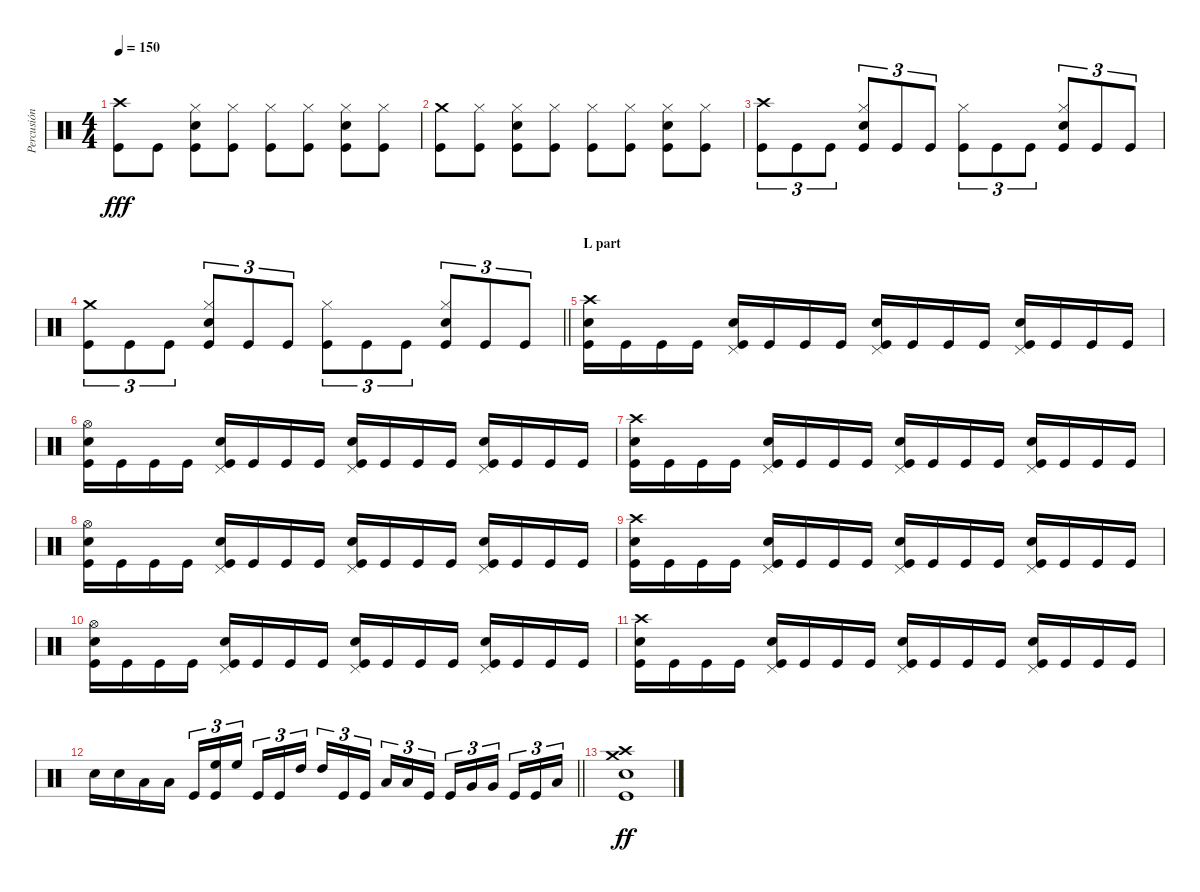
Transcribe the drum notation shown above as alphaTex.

\track ("Percusión" "Percusión") {instrument percussion}
\staff {score}
\articulation defaults
\ts (4 4)
\tempo 150
\clef neutral
\ks c
("Crash high (hit)" "Kick (hit)").8{dy fff} "Kick (hit)".8 ("Hi-Hat (closed)" "Electric Snare (hit)" "Kick (hit)").8 ("Hi-Hat (closed)" "Kick (hit)").8 ("Hi-Hat (closed)" "Kick (hit)").8 ("Hi-Hat (closed)" "Kick (hit)").8 ("Hi-Hat (closed)" "Electric Snare (hit)" "Kick (hit)").8 ("Hi-Hat (closed)" "Kick (hit)").8 |
("Crash medium (hit)" "Kick (hit)").8 ("Hi-Hat (closed)" "Kick (hit)").8 ("Hi-Hat (closed)" "Electric Snare (hit)" "Kick (hit)").8 ("Hi-Hat (closed)" "Kick (hit)").8 ("Hi-Hat (closed)" "Kick (hit)").8 ("Hi-Hat (closed)" "Kick (hit)").8 ("Hi-Hat (closed)" "Electric Snare (hit)" "Kick (hit)").8 ("Hi-Hat (closed)" "Kick (hit)").8 |
("Crash high (hit)" "Kick (hit)").8{tu (3 2)} "Kick (hit)".8{tu (3 2)} "Kick (hit)".8{tu (3 2)} ("Hi-Hat (closed)" "Electric Snare (hit)" "Kick (hit)").8{tu (3 2)} "Kick (hit)".8{tu (3 2)} "Kick (hit)".8{tu (3 2)} ("Hi-Hat (closed)" "Kick (hit)").8{tu (3 2)} "Kick (hit)".8{tu (3 2)} "Kick (hit)".8{tu (3 2)} ("Hi-Hat (closed)" "Electric Snare (hit)" "Kick (hit)").8{tu (3 2)} "Kick (hit)".8{tu (3 2)} "Kick (hit)".8{tu (3 2)} |
\barLineRight lightlight
("Crash medium (hit)" "Kick (hit)").8{tu (3 2)} "Kick (hit)".8{tu (3 2)} "Kick (hit)".8{tu (3 2)} ("Hi-Hat (closed)" "Electric Snare (hit)" "Kick (hit)").8{tu (3 2)} "Kick (hit)".8{tu (3 2)} "Kick (hit)".8{tu (3 2)} ("Hi-Hat (closed)" "Kick (hit)").8{tu (3 2)} "Kick (hit)".8{tu (3 2)} "Kick (hit)".8{tu (3 2)} ("Hi-Hat (closed)" "Electric Snare (hit)" "Kick (hit)").8{tu (3 2)} "Kick (hit)".8{tu (3 2)} "Kick (hit)".8{tu (3 2)} |
\section ("" "L part")
("Crash high (hit)" "Electric Snare (hit)" "Kick (hit)").16{volume 16} "Kick (hit)".16 "Kick (hit)".16 "Kick (hit)".16 ("Pedal Hi-Hat (hit)" "Electric Snare (hit)" "Kick (hit)").16 "Kick (hit)".16 "Kick (hit)".16 "Kick (hit)".16 ("Pedal Hi-Hat (hit)" "Electric Snare (hit)" "Kick (hit)").16 "Kick (hit)".16 "Kick (hit)".16 "Kick (hit)".16 ("Pedal Hi-Hat (hit)" "Electric Snare (hit)" "Kick (hit)").16 "Kick (hit)".16 "Kick (hit)".16 "Kick (hit)".16 |
("Hi-Hat (open)" "Electric Snare (hit)" "Kick (hit)").16 "Kick (hit)".16 "Kick (hit)".16 "Kick (hit)".16 ("Pedal Hi-Hat (hit)" "Electric Snare (hit)" "Kick (hit)").16 "Kick (hit)".16 "Kick (hit)".16 "Kick (hit)".16 ("Pedal Hi-Hat (hit)" "Electric Snare (hit)" "Kick (hit)").16 "Kick (hit)".16 "Kick (hit)".16 "Kick (hit)".16 ("Pedal Hi-Hat (hit)" "Electric Snare (hit)" "Kick (hit)").16 "Kick (hit)".16 "Kick (hit)".16 "Kick (hit)".16 |
("Crash high (hit)" "Electric Snare (hit)" "Kick (hit)").16 "Kick (hit)".16 "Kick (hit)".16 "Kick (hit)".16 ("Pedal Hi-Hat (hit)" "Electric Snare (hit)" "Kick (hit)").16 "Kick (hit)".16 "Kick (hit)".16 "Kick (hit)".16 ("Pedal Hi-Hat (hit)" "Electric Snare (hit)" "Kick (hit)").16 "Kick (hit)".16 "Kick (hit)".16 "Kick (hit)".16 ("Pedal Hi-Hat (hit)" "Electric Snare (hit)" "Kick (hit)").16 "Kick (hit)".16 "Kick (hit)".16 "Kick (hit)".16 |
("Hi-Hat (open)" "Electric Snare (hit)" "Kick (hit)").16 "Kick (hit)".16 "Kick (hit)".16 "Kick (hit)".16 ("Pedal Hi-Hat (hit)" "Electric Snare (hit)" "Kick (hit)").16 "Kick (hit)".16 "Kick (hit)".16 "Kick (hit)".16 ("Pedal Hi-Hat (hit)" "Electric Snare (hit)" "Kick (hit)").16 "Kick (hit)".16 "Kick (hit)".16 "Kick (hit)".16 ("Pedal Hi-Hat (hit)" "Electric Snare (hit)" "Kick (hit)").16 "Kick (hit)".16 "Kick (hit)".16 "Kick (hit)".16 |
("Crash high (hit)" "Electric Snare (hit)" "Kick (hit)").16 "Kick (hit)".16 "Kick (hit)".16 "Kick (hit)".16 ("Pedal Hi-Hat (hit)" "Electric Snare (hit)" "Kick (hit)").16 "Kick (hit)".16 "Kick (hit)".16 "Kick (hit)".16 ("Pedal Hi-Hat (hit)" "Electric Snare (hit)" "Kick (hit)").16 "Kick (hit)".16 "Kick (hit)".16 "Kick (hit)".16 ("Pedal Hi-Hat (hit)" "Electric Snare (hit)" "Kick (hit)").16 "Kick (hit)".16 "Kick (hit)".16 "Kick (hit)".16 |
("Hi-Hat (open)" "Electric Snare (hit)" "Kick (hit)").16 "Kick (hit)".16 "Kick (hit)".16 "Kick (hit)".16 ("Pedal Hi-Hat (hit)" "Electric Snare (hit)" "Kick (hit)").16 "Kick (hit)".16 "Kick (hit)".16 "Kick (hit)".16 ("Pedal Hi-Hat (hit)" "Electric Snare (hit)" "Kick (hit)").16 "Kick (hit)".16 "Kick (hit)".16 "Kick (hit)".16 ("Pedal Hi-Hat (hit)" "Electric Snare (hit)" "Kick (hit)").16 "Kick (hit)".16 "Kick (hit)".16 "Kick (hit)".16 |
("Crash high (hit)" "Electric Snare (hit)" "Kick (hit)").16 "Kick (hit)".16 "Kick (hit)".16 "Kick (hit)".16 ("Pedal Hi-Hat (hit)" "Electric Snare (hit)" "Kick (hit)").16 "Kick (hit)".16 "Kick (hit)".16 "Kick (hit)".16 ("Pedal Hi-Hat (hit)" "Electric Snare (hit)" "Kick (hit)").16 "Kick (hit)".16 "Kick (hit)".16 "Kick (hit)".16 ("Pedal Hi-Hat (hit)" "Electric Snare (hit)" "Kick (hit)").16 "Kick (hit)".16 "Kick (hit)".16 "Kick (hit)".16 |
\barLineRight lightlight "Electric Snare (hit)".16 "Electric Snare (hit)".16 "Low Tom (hit)".16 "Low Floor Tom (hit)".16 "Kick (hit)".16{tu (3 2)}
("High Floor Tom (hit)" "Kick (hit)").16{tu (3 2)} "High Floor Tom (hit)".16{tu (3 2) beam splitsecondary} "Kick (hit)".16{tu (3 2)} "Kick (hit)".16{tu (3 2)} "High Tom (hit)".16{tu (3 2)} "High Tom (hit)".16{tu (3 2)} "Kick (hit)".16{tu (3 2)} "Kick (hit)".16{tu (3 2) beam splitsecondary} "Low Tom (hit)".16{tu (3 2)} "Low Tom (hit)".16{tu (3 2)} "Kick (hit)".16{tu (3 2)} "Kick (hit)".16{tu (3 2)} "Very Low Tom (hit)".16{tu (3 2)} "Very Low Tom (hit)".16{tu (3 2) beam splitsecondary} "Kick (hit)".16{tu (3 2)} "Kick (hit)".16{tu (3 2)} "Low Floor Tom (hit)".16{tu (3 2)} |
("Crash high (hit)" "Crash medium (hit)" "Electric Snare (hit)" "Kick (hit)").1{dy ff}
